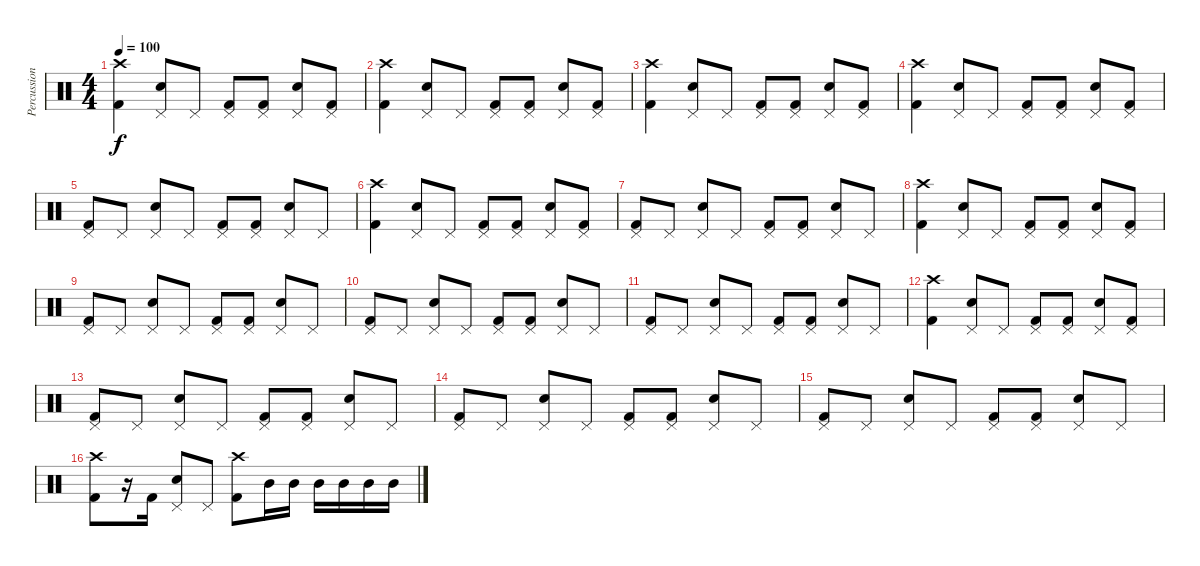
\track ("Percussion" "Percussion") {instrument percussion}
\staff {score}
\articulation defaults
\ts (4 4)
\tempo 100
\clef neutral
\ks c
("Crash high (hit)" "Kick (hit) 2").4{dy f} ("Pedal Hi-Hat (hit)" "Snare (hit) 2").8 "Pedal Hi-Hat (hit)".8 ("Pedal Hi-Hat (hit)" "Kick (hit) 2").8 ("Pedal Hi-Hat (hit)" "Kick (hit) 2").8 ("Pedal Hi-Hat (hit)" "Snare (hit) 2").8 ("Pedal Hi-Hat (hit)" "Kick (hit) 2").8 |
("Crash high (hit)" "Kick (hit) 2").4 ("Pedal Hi-Hat (hit)" "Snare (hit) 2").8 "Pedal Hi-Hat (hit)".8 ("Pedal Hi-Hat (hit)" "Kick (hit) 2").8 ("Pedal Hi-Hat (hit)" "Kick (hit) 2").8 ("Pedal Hi-Hat (hit)" "Snare (hit) 2").8 ("Pedal Hi-Hat (hit)" "Kick (hit) 2").8 |
("Crash high (hit)" "Kick (hit) 2").4 ("Pedal Hi-Hat (hit)" "Snare (hit) 2").8 "Pedal Hi-Hat (hit)".8 ("Pedal Hi-Hat (hit)" "Kick (hit) 2").8 ("Pedal Hi-Hat (hit)" "Kick (hit) 2").8 ("Pedal Hi-Hat (hit)" "Snare (hit) 2").8 ("Pedal Hi-Hat (hit)" "Kick (hit) 2").8 |
("Crash high (hit)" "Kick (hit) 2").4 ("Pedal Hi-Hat (hit)" "Snare (hit) 2").8 "Pedal Hi-Hat (hit)".8 ("Pedal Hi-Hat (hit)" "Kick (hit) 2").8 ("Pedal Hi-Hat (hit)" "Kick (hit) 2").8 ("Pedal Hi-Hat (hit)" "Snare (hit) 2").8 ("Pedal Hi-Hat (hit)" "Kick (hit) 2").8 |
("Pedal Hi-Hat (hit)" "Kick (hit) 2").8 "Pedal Hi-Hat (hit)".8 ("Pedal Hi-Hat (hit)" "Snare (hit) 2").8 "Pedal Hi-Hat (hit)".8 ("Pedal Hi-Hat (hit)" "Kick (hit) 2").8 ("Pedal Hi-Hat (hit)" "Kick (hit) 2").8 ("Pedal Hi-Hat (hit)" "Snare (hit) 2").8 "Pedal Hi-Hat (hit)".8 |
("Crash high (hit)" "Kick (hit) 2").4 ("Pedal Hi-Hat (hit)" "Snare (hit) 2").8 "Pedal Hi-Hat (hit)".8 ("Pedal Hi-Hat (hit)" "Kick (hit) 2").8 ("Pedal Hi-Hat (hit)" "Kick (hit) 2").8 ("Pedal Hi-Hat (hit)" "Snare (hit) 2").8 ("Pedal Hi-Hat (hit)" "Kick (hit) 2").8 |
("Pedal Hi-Hat (hit)" "Kick (hit) 2").8 "Pedal Hi-Hat (hit)".8 ("Pedal Hi-Hat (hit)" "Snare (hit) 2").8 "Pedal Hi-Hat (hit)".8 ("Pedal Hi-Hat (hit)" "Kick (hit) 2").8 ("Pedal Hi-Hat (hit)" "Kick (hit) 2").8 ("Pedal Hi-Hat (hit)" "Snare (hit) 2").8 "Pedal Hi-Hat (hit)".8 |
("Crash high (hit)" "Kick (hit) 2").4 ("Pedal Hi-Hat (hit)" "Snare (hit) 2").8 "Pedal Hi-Hat (hit)".8 ("Pedal Hi-Hat (hit)" "Kick (hit) 2").8 ("Pedal Hi-Hat (hit)" "Kick (hit) 2").8 ("Pedal Hi-Hat (hit)" "Snare (hit) 2").8 ("Pedal Hi-Hat (hit)" "Kick (hit) 2").8 |
("Pedal Hi-Hat (hit)" "Kick (hit) 2").8 "Pedal Hi-Hat (hit)".8 ("Pedal Hi-Hat (hit)" "Snare (hit) 2").8 "Pedal Hi-Hat (hit)".8 ("Pedal Hi-Hat (hit)" "Kick (hit) 2").8 ("Pedal Hi-Hat (hit)" "Kick (hit) 2").8 ("Pedal Hi-Hat (hit)" "Snare (hit) 2").8 "Pedal Hi-Hat (hit)".8 |
("Pedal Hi-Hat (hit)" "Kick (hit) 2").8 "Pedal Hi-Hat (hit)".8 ("Pedal Hi-Hat (hit)" "Snare (hit) 2").8 "Pedal Hi-Hat (hit)".8 ("Pedal Hi-Hat (hit)" "Kick (hit) 2").8 ("Pedal Hi-Hat (hit)" "Kick (hit) 2").8 ("Pedal Hi-Hat (hit)" "Snare (hit) 2").8 "Pedal Hi-Hat (hit)".8 |
("Pedal Hi-Hat (hit)" "Kick (hit) 2").8 "Pedal Hi-Hat (hit)".8 ("Pedal Hi-Hat (hit)" "Snare (hit) 2").8 "Pedal Hi-Hat (hit)".8 ("Pedal Hi-Hat (hit)" "Kick (hit) 2").8 ("Pedal Hi-Hat (hit)" "Kick (hit) 2").8 ("Pedal Hi-Hat (hit)" "Snare (hit) 2").8 "Pedal Hi-Hat (hit)".8 |
("Crash high (hit)" "Kick (hit) 2").4 ("Pedal Hi-Hat (hit)" "Snare (hit) 2").8 "Pedal Hi-Hat (hit)".8 ("Pedal Hi-Hat (hit)" "Kick (hit) 2").8 ("Pedal Hi-Hat (hit)" "Kick (hit) 2").8 ("Pedal Hi-Hat (hit)" "Snare (hit) 2").8 ("Pedal Hi-Hat (hit)" "Kick (hit) 2").8 |
("Pedal Hi-Hat (hit)" "Kick (hit) 2").8 "Pedal Hi-Hat (hit)".8 ("Pedal Hi-Hat (hit)" "Snare (hit) 2").8 "Pedal Hi-Hat (hit)".8 ("Pedal Hi-Hat (hit)" "Kick (hit) 2").8 ("Pedal Hi-Hat (hit)" "Kick (hit) 2").8 ("Pedal Hi-Hat (hit)" "Snare (hit) 2").8 "Pedal Hi-Hat (hit)".8 |
("Pedal Hi-Hat (hit)" "Kick (hit) 2").8 "Pedal Hi-Hat (hit)".8 ("Pedal Hi-Hat (hit)" "Snare (hit) 2").8 "Pedal Hi-Hat (hit)".8 ("Pedal Hi-Hat (hit)" "Kick (hit) 2").8 ("Pedal Hi-Hat (hit)" "Kick (hit) 2").8 ("Pedal Hi-Hat (hit)" "Snare (hit) 2").8 "Pedal Hi-Hat (hit)".8 |
("Pedal Hi-Hat (hit)" "Kick (hit) 2").8 "Pedal Hi-Hat (hit)".8 ("Pedal Hi-Hat (hit)" "Snare (hit) 2").8 "Pedal Hi-Hat (hit)".8 ("Pedal Hi-Hat (hit)" "Kick (hit) 2").8 ("Pedal Hi-Hat (hit)" "Kick (hit) 2").8 ("Pedal Hi-Hat (hit)" "Snare (hit) 2").8 "Pedal Hi-Hat (hit)".8 |
("Crash high (hit)" "Kick (hit) 2").8 r.16 "Kick (hit) 2".16 ("Pedal Hi-Hat (hit)" "Snare (hit) 2").8 "Pedal Hi-Hat (hit)".8 ("Crash high (hit)" "Kick (hit) 2").8 "Mid Tom (hit)".16 "Mid Tom (hit)".16 "Mid Tom (hit)".16 "Mid Tom (hit)".16 "Mid Tom (hit)".16 "Mid Tom (hit)".16
